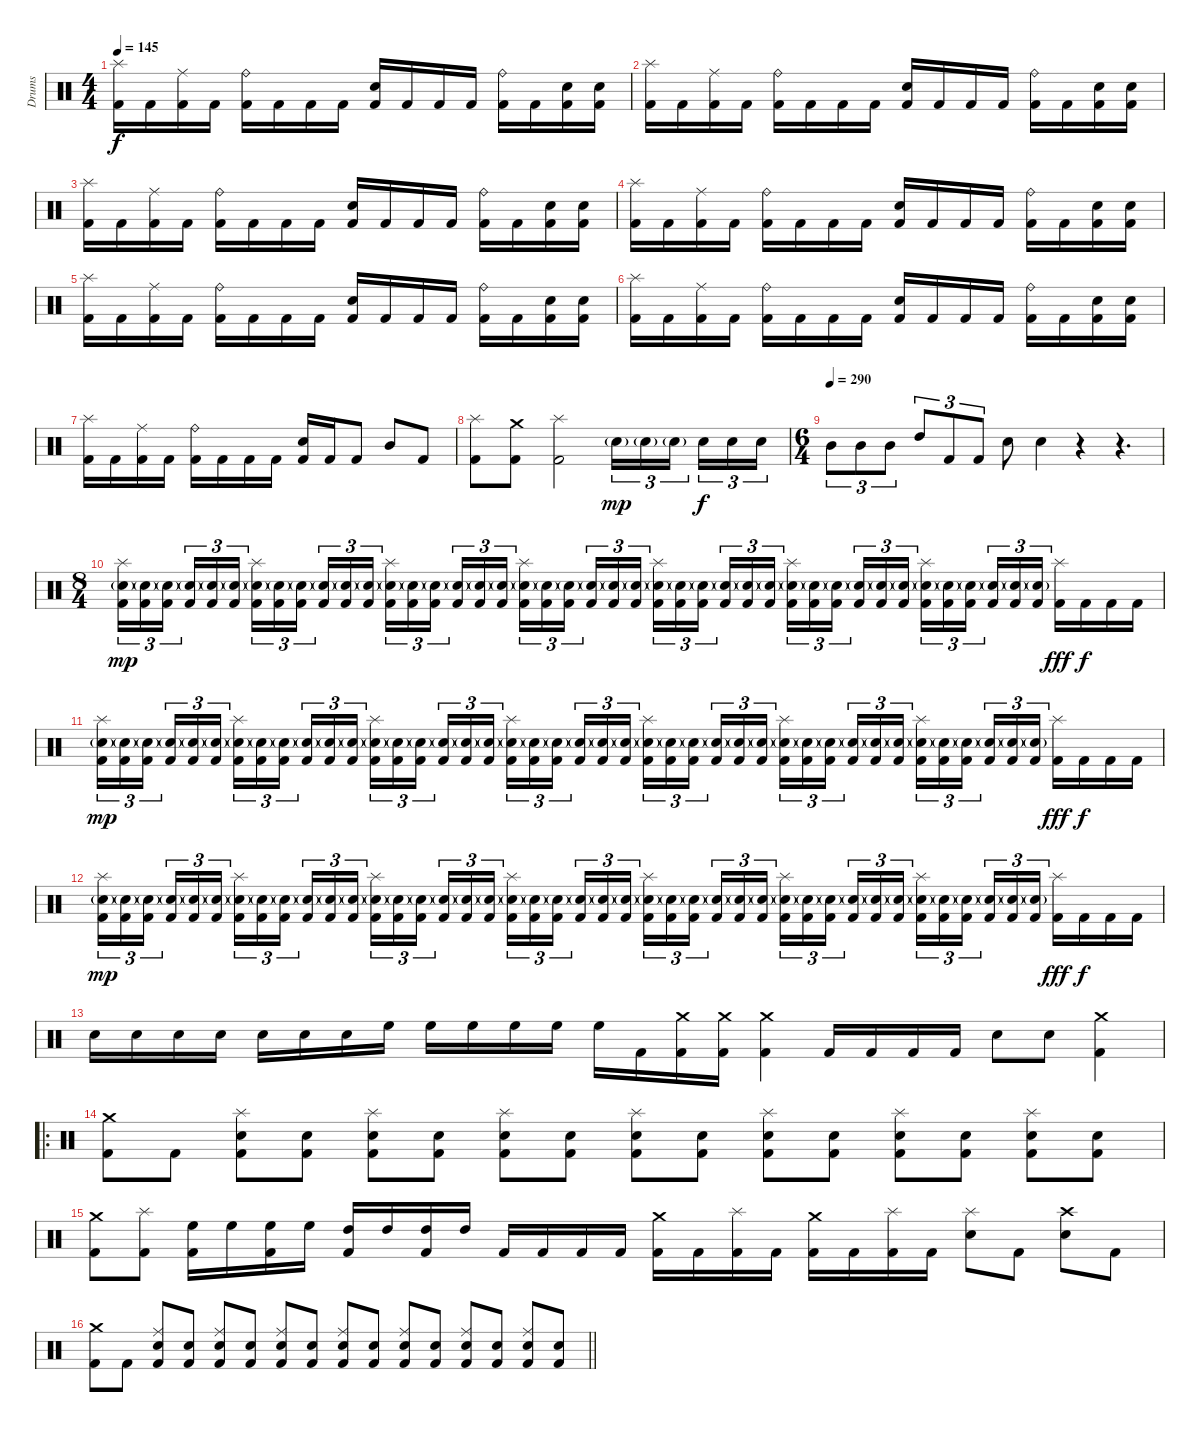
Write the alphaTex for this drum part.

\track ("Drums" "Drums") {instrument percussion}
\staff {score}
\articulation defaults
\ts (4 4)
\tempo 145
\clef neutral
\ks c
("Splash (hit)" "Kick (hit) 2").16{dy f} "Kick (hit) 2".16 ("Ride (middle)" "Kick (hit) 2").16 "Kick (hit) 2".16 ("Ride (bell)" "Kick (hit) 2").16 "Kick (hit) 2".16 "Kick (hit) 2".16 "Kick (hit) 2".16 ("Snare (hit) 2" "Kick (hit) 2").16 "Kick (hit) 2".16 "Kick (hit) 2".16 "Kick (hit) 2".16 ("Ride (bell)" "Kick (hit) 2").16 "Kick (hit) 2".16 ("Snare (hit) 2" "Kick (hit) 2").16 ("Snare (hit) 2" "Kick (hit) 2").16 |
("Splash (hit)" "Kick (hit) 2").16 "Kick (hit) 2".16 ("Ride (middle)" "Kick (hit) 2").16 "Kick (hit) 2".16 ("Ride (bell)" "Kick (hit) 2").16 "Kick (hit) 2".16 "Kick (hit) 2".16 "Kick (hit) 2".16 ("Snare (hit) 2" "Kick (hit) 2").16 "Kick (hit) 2".16 "Kick (hit) 2".16 "Kick (hit) 2".16 ("Ride (bell)" "Kick (hit) 2").16 "Kick (hit) 2".16 ("Snare (hit) 2" "Kick (hit) 2").16 ("Snare (hit) 2" "Kick (hit) 2").16 |
("Splash (hit)" "Kick (hit) 2").16 "Kick (hit) 2".16 ("Ride (middle)" "Kick (hit) 2").16 "Kick (hit) 2".16 ("Ride (bell)" "Kick (hit) 2").16 "Kick (hit) 2".16 "Kick (hit) 2".16 "Kick (hit) 2".16 ("Snare (hit) 2" "Kick (hit) 2").16 "Kick (hit) 2".16 "Kick (hit) 2".16 "Kick (hit) 2".16 ("Ride (bell)" "Kick (hit) 2").16 "Kick (hit) 2".16 ("Snare (hit) 2" "Kick (hit) 2").16 ("Snare (hit) 2" "Kick (hit) 2").16 |
("Splash (hit)" "Kick (hit) 2").16 "Kick (hit) 2".16 ("Ride (middle)" "Kick (hit) 2").16 "Kick (hit) 2".16 ("Ride (bell)" "Kick (hit) 2").16 "Kick (hit) 2".16 "Kick (hit) 2".16 "Kick (hit) 2".16 ("Snare (hit) 2" "Kick (hit) 2").16 "Kick (hit) 2".16 "Kick (hit) 2".16 "Kick (hit) 2".16 ("Ride (bell)" "Kick (hit) 2").16 "Kick (hit) 2".16 ("Snare (hit) 2" "Kick (hit) 2").16 ("Snare (hit) 2" "Kick (hit) 2").16 |
("Splash (hit)" "Kick (hit) 2").16 "Kick (hit) 2".16 ("Ride (middle)" "Kick (hit) 2").16 "Kick (hit) 2".16 ("Ride (bell)" "Kick (hit) 2").16 "Kick (hit) 2".16 "Kick (hit) 2".16 "Kick (hit) 2".16 ("Snare (hit) 2" "Kick (hit) 2").16 "Kick (hit) 2".16 "Kick (hit) 2".16 "Kick (hit) 2".16 ("Ride (bell)" "Kick (hit) 2").16 "Kick (hit) 2".16 ("Snare (hit) 2" "Kick (hit) 2").16 ("Snare (hit) 2" "Kick (hit) 2").16 |
("Splash (hit)" "Kick (hit) 2").16 "Kick (hit) 2".16 ("Ride (middle)" "Kick (hit) 2").16 "Kick (hit) 2".16 ("Ride (bell)" "Kick (hit) 2").16 "Kick (hit) 2".16 "Kick (hit) 2".16 "Kick (hit) 2".16 ("Snare (hit) 2" "Kick (hit) 2").16 "Kick (hit) 2".16 "Kick (hit) 2".16 "Kick (hit) 2".16 ("Ride (bell)" "Kick (hit) 2").16 "Kick (hit) 2".16 ("Snare (hit) 2" "Kick (hit) 2").16 ("Snare (hit) 2" "Kick (hit) 2").16 |
("Splash (hit)" "Kick (hit) 2").16 "Kick (hit) 2".16 ("Ride (middle)" "Kick (hit) 2").16 "Kick (hit) 2".16 ("Ride (bell)" "Kick (hit) 2").16 "Kick (hit) 2".16 "Kick (hit) 2".16 "Kick (hit) 2".16 ("Snare (hit) 2" "Kick (hit) 2").16 "Kick (hit) 2".16 "Kick (hit) 2".8 "Mid Tom (hit)".8 "Kick (hit) 2".8 |
("Splash (hit)" "Kick (hit) 2").8 ("Crash medium (hit)" "Kick (hit) 2").8 ("Splash (hit)" "Kick (hit) 2").2 "Snare (hit) 2"{g}.16{tu (3 2) dy mp} "Snare (hit) 2"{g}.16{tu (3 2)} "Snare (hit) 2"{g}.16{tu (3 2) beam splitsecondary} "Snare (hit) 2".16{tu (3 2) dy f} "Snare (hit) 2".16{tu (3 2)} "Snare (hit) 2".16{tu (3 2)} |
\ts (6 4)
\tempo (290)
"Mid Tom (hit)".8{tu (3 2)} "Mid Tom (hit)".8{tu (3 2)} "Mid Tom (hit)".8{tu (3 2)} "High Tom (hit)".8{tu (3 2)} "Kick (hit) 2".8{tu (3 2)} "Kick (hit) 2".8{tu (3 2)} "Snare (hit) 2".8 "Snare (hit) 2".4 r.4 r.4{d} |
\ts (8 4)
("Splash (hit)" "Snare (hit) 2"{g} "Kick (hit) 2").16{tu (3 2) dy mp} ("Snare (hit) 2"{g} "Kick (hit) 2").16{tu (3 2)} ("Snare (hit) 2"{g} "Kick (hit) 2").16{tu (3 2) beam splitsecondary} ("Snare (hit) 2"{g} "Kick (hit) 2").16{tu (3 2)} ("Snare (hit) 2"{g} "Kick (hit) 2").16{tu (3 2)} ("Snare (hit) 2"{g} "Kick (hit) 2").16{tu (3 2)} ("Splash (hit)" "Snare (hit) 2"{g} "Kick (hit) 2").16{tu (3 2)} ("Snare (hit) 2"{g} "Kick (hit) 2").16{tu (3 2)} ("Snare (hit) 2"{g} "Kick (hit) 2").16{tu (3 2) beam splitsecondary} ("Snare (hit) 2"{g} "Kick (hit) 2").16{tu (3 2)} ("Snare (hit) 2"{g} "Kick (hit) 2").16{tu (3 2)} ("Snare (hit) 2"{g} "Kick (hit) 2").16{tu (3 2)} ("Splash (hit)" "Snare (hit) 2"{g} "Kick (hit) 2").16{tu (3 2)} ("Snare (hit) 2"{g} "Kick (hit) 2").16{tu (3 2)} ("Snare (hit) 2"{g} "Kick (hit) 2").16{tu (3 2) beam splitsecondary} ("Snare (hit) 2"{g} "Kick (hit) 2").16{tu (3 2)} ("Snare (hit) 2"{g} "Kick (hit) 2").16{tu (3 2)} ("Snare (hit) 2"{g} "Kick (hit) 2").16{tu (3 2)} ("Splash (hit)" "Snare (hit) 2"{g} "Kick (hit) 2").16{tu (3 2)} ("Snare (hit) 2"{g} "Kick (hit) 2").16{tu (3 2)} ("Snare (hit) 2"{g} "Kick (hit) 2").16{tu (3 2) beam splitsecondary} ("Snare (hit) 2"{g} "Kick (hit) 2").16{tu (3 2)} ("Snare (hit) 2"{g} "Kick (hit) 2").16{tu (3 2)} ("Snare (hit) 2"{g} "Kick (hit) 2").16{tu (3 2)} ("Splash (hit)" "Snare (hit) 2"{g} "Kick (hit) 2").16{tu (3 2)} ("Snare (hit) 2"{g} "Kick (hit) 2").16{tu (3 2)} ("Snare (hit) 2"{g} "Kick (hit) 2").16{tu (3 2) beam splitsecondary} ("Snare (hit) 2"{g} "Kick (hit) 2").16{tu (3 2)} ("Snare (hit) 2"{g} "Kick (hit) 2").16{tu (3 2)} ("Snare (hit) 2"{g} "Kick (hit) 2").16{tu (3 2)} ("Splash (hit)" "Snare (hit) 2"{g} "Kick (hit) 2").16{tu (3 2)} ("Snare (hit) 2"{g} "Kick (hit) 2").16{tu (3 2)} ("Snare (hit) 2"{g} "Kick (hit) 2").16{tu (3 2) beam splitsecondary} ("Snare (hit) 2"{g} "Kick (hit) 2").16{tu (3 2)} ("Snare (hit) 2"{g} "Kick (hit) 2").16{tu (3 2)} ("Snare (hit) 2"{g} "Kick (hit) 2").16{tu (3 2)} ("Splash (hit)" "Snare (hit) 2"{g} "Kick (hit) 2").16{tu (3 2)} ("Snare (hit) 2"{g} "Kick (hit) 2").16{tu (3 2)} ("Snare (hit) 2"{g} "Kick (hit) 2").16{tu (3 2) beam splitsecondary} ("Snare (hit) 2"{g} "Kick (hit) 2").16{tu (3 2)} ("Snare (hit) 2"{g} "Kick (hit) 2").16{tu (3 2)} ("Snare (hit) 2"{g} "Kick (hit) 2").16{tu (3 2)} ("Splash (hit)" "Kick (hit) 2").16{dy fff} "Kick (hit) 2".16{dy f} "Kick (hit) 2".16 "Kick (hit) 2".16 |
("Splash (hit)" "Snare (hit) 2"{g} "Kick (hit) 2").16{tu (3 2) dy mp} ("Snare (hit) 2"{g} "Kick (hit) 2").16{tu (3 2)} ("Snare (hit) 2"{g} "Kick (hit) 2").16{tu (3 2) beam splitsecondary} ("Snare (hit) 2"{g} "Kick (hit) 2").16{tu (3 2)} ("Snare (hit) 2"{g} "Kick (hit) 2").16{tu (3 2)} ("Snare (hit) 2"{g} "Kick (hit) 2").16{tu (3 2)} ("Splash (hit)" "Snare (hit) 2"{g} "Kick (hit) 2").16{tu (3 2)} ("Snare (hit) 2"{g} "Kick (hit) 2").16{tu (3 2)} ("Snare (hit) 2"{g} "Kick (hit) 2").16{tu (3 2) beam splitsecondary} ("Snare (hit) 2"{g} "Kick (hit) 2").16{tu (3 2)} ("Snare (hit) 2"{g} "Kick (hit) 2").16{tu (3 2)} ("Snare (hit) 2"{g} "Kick (hit) 2").16{tu (3 2)} ("Splash (hit)" "Snare (hit) 2"{g} "Kick (hit) 2").16{tu (3 2)} ("Snare (hit) 2"{g} "Kick (hit) 2").16{tu (3 2)} ("Snare (hit) 2"{g} "Kick (hit) 2").16{tu (3 2) beam splitsecondary} ("Snare (hit) 2"{g} "Kick (hit) 2").16{tu (3 2)} ("Snare (hit) 2"{g} "Kick (hit) 2").16{tu (3 2)} ("Snare (hit) 2"{g} "Kick (hit) 2").16{tu (3 2)} ("Splash (hit)" "Snare (hit) 2"{g} "Kick (hit) 2").16{tu (3 2)} ("Snare (hit) 2"{g} "Kick (hit) 2").16{tu (3 2)} ("Snare (hit) 2"{g} "Kick (hit) 2").16{tu (3 2) beam splitsecondary} ("Snare (hit) 2"{g} "Kick (hit) 2").16{tu (3 2)} ("Snare (hit) 2"{g} "Kick (hit) 2").16{tu (3 2)} ("Snare (hit) 2"{g} "Kick (hit) 2").16{tu (3 2)} ("Splash (hit)" "Snare (hit) 2"{g} "Kick (hit) 2").16{tu (3 2)} ("Snare (hit) 2"{g} "Kick (hit) 2").16{tu (3 2)} ("Snare (hit) 2"{g} "Kick (hit) 2").16{tu (3 2) beam splitsecondary} ("Snare (hit) 2"{g} "Kick (hit) 2").16{tu (3 2)} ("Snare (hit) 2"{g} "Kick (hit) 2").16{tu (3 2)} ("Snare (hit) 2"{g} "Kick (hit) 2").16{tu (3 2)} ("Splash (hit)" "Snare (hit) 2"{g} "Kick (hit) 2").16{tu (3 2)} ("Snare (hit) 2"{g} "Kick (hit) 2").16{tu (3 2)} ("Snare (hit) 2"{g} "Kick (hit) 2").16{tu (3 2) beam splitsecondary} ("Snare (hit) 2"{g} "Kick (hit) 2").16{tu (3 2)} ("Snare (hit) 2"{g} "Kick (hit) 2").16{tu (3 2)} ("Snare (hit) 2"{g} "Kick (hit) 2").16{tu (3 2)} ("Splash (hit)" "Snare (hit) 2"{g} "Kick (hit) 2").16{tu (3 2)} ("Snare (hit) 2"{g} "Kick (hit) 2").16{tu (3 2)} ("Snare (hit) 2"{g} "Kick (hit) 2").16{tu (3 2) beam splitsecondary} ("Snare (hit) 2"{g} "Kick (hit) 2").16{tu (3 2)} ("Snare (hit) 2"{g} "Kick (hit) 2").16{tu (3 2)} ("Snare (hit) 2"{g} "Kick (hit) 2").16{tu (3 2)} ("Splash (hit)" "Kick (hit) 2").16{dy fff} "Kick (hit) 2".16{dy f} "Kick (hit) 2".16 "Kick (hit) 2".16 |
("Splash (hit)" "Snare (hit) 2"{g} "Kick (hit) 2").16{tu (3 2) dy mp} ("Snare (hit) 2"{g} "Kick (hit) 2").16{tu (3 2)} ("Snare (hit) 2"{g} "Kick (hit) 2").16{tu (3 2) beam splitsecondary} ("Snare (hit) 2"{g} "Kick (hit) 2").16{tu (3 2)} ("Snare (hit) 2"{g} "Kick (hit) 2").16{tu (3 2)} ("Snare (hit) 2"{g} "Kick (hit) 2").16{tu (3 2)} ("Splash (hit)" "Snare (hit) 2"{g} "Kick (hit) 2").16{tu (3 2)} ("Snare (hit) 2"{g} "Kick (hit) 2").16{tu (3 2)} ("Snare (hit) 2"{g} "Kick (hit) 2").16{tu (3 2) beam splitsecondary} ("Snare (hit) 2"{g} "Kick (hit) 2").16{tu (3 2)} ("Snare (hit) 2"{g} "Kick (hit) 2").16{tu (3 2)} ("Snare (hit) 2"{g} "Kick (hit) 2").16{tu (3 2)} ("Splash (hit)" "Snare (hit) 2"{g} "Kick (hit) 2").16{tu (3 2)} ("Snare (hit) 2"{g} "Kick (hit) 2").16{tu (3 2)} ("Snare (hit) 2"{g} "Kick (hit) 2").16{tu (3 2) beam splitsecondary} ("Snare (hit) 2"{g} "Kick (hit) 2").16{tu (3 2)} ("Snare (hit) 2"{g} "Kick (hit) 2").16{tu (3 2)} ("Snare (hit) 2"{g} "Kick (hit) 2").16{tu (3 2)} ("Splash (hit)" "Snare (hit) 2"{g} "Kick (hit) 2").16{tu (3 2)} ("Snare (hit) 2"{g} "Kick (hit) 2").16{tu (3 2)} ("Snare (hit) 2"{g} "Kick (hit) 2").16{tu (3 2) beam splitsecondary} ("Snare (hit) 2"{g} "Kick (hit) 2").16{tu (3 2)} ("Snare (hit) 2"{g} "Kick (hit) 2").16{tu (3 2)} ("Snare (hit) 2"{g} "Kick (hit) 2").16{tu (3 2)} ("Splash (hit)" "Snare (hit) 2"{g} "Kick (hit) 2").16{tu (3 2)} ("Snare (hit) 2"{g} "Kick (hit) 2").16{tu (3 2)} ("Snare (hit) 2"{g} "Kick (hit) 2").16{tu (3 2) beam splitsecondary} ("Snare (hit) 2"{g} "Kick (hit) 2").16{tu (3 2)} ("Snare (hit) 2"{g} "Kick (hit) 2").16{tu (3 2)} ("Snare (hit) 2"{g} "Kick (hit) 2").16{tu (3 2)} ("Splash (hit)" "Snare (hit) 2"{g} "Kick (hit) 2").16{tu (3 2)} ("Snare (hit) 2"{g} "Kick (hit) 2").16{tu (3 2)} ("Snare (hit) 2"{g} "Kick (hit) 2").16{tu (3 2) beam splitsecondary} ("Snare (hit) 2"{g} "Kick (hit) 2").16{tu (3 2)} ("Snare (hit) 2"{g} "Kick (hit) 2").16{tu (3 2)} ("Snare (hit) 2"{g} "Kick (hit) 2").16{tu (3 2)} ("Splash (hit)" "Snare (hit) 2"{g} "Kick (hit) 2").16{tu (3 2)} ("Snare (hit) 2"{g} "Kick (hit) 2").16{tu (3 2)} ("Snare (hit) 2"{g} "Kick (hit) 2").16{tu (3 2) beam splitsecondary} ("Snare (hit) 2"{g} "Kick (hit) 2").16{tu (3 2)} ("Snare (hit) 2"{g} "Kick (hit) 2").16{tu (3 2)} ("Snare (hit) 2"{g} "Kick (hit) 2").16{tu (3 2)} ("Splash (hit)" "Kick (hit) 2").16{dy fff} "Kick (hit) 2".16{dy f} "Kick (hit) 2".16 "Kick (hit) 2".16 |
"Snare (hit) 2".16 "Snare (hit) 2".16 "Snare (hit) 2".16 "Snare (hit) 2".16 "Snare (hit) 2".16 "Snare (hit) 2".16 "Snare (hit) 2".16 "High Floor Tom (hit)".16 "High Floor Tom (hit)".16 "High Floor Tom (hit)".16 "High Floor Tom (hit)".16 "High Floor Tom (hit)".16 "High Floor Tom (hit)".16 "Kick (hit) 2".16 ("Crash medium (hit)" "Kick (hit) 2").16 ("Crash medium (hit)" "Kick (hit) 2").16 ("Crash medium (hit)" "Kick (hit) 2").4 "Kick (hit) 2".16 "Kick (hit) 2".16 "Kick (hit) 2".16 "Kick (hit) 2".16 "Snare (hit) 2".8 "Snare (hit) 2".8 ("Crash medium (hit)" "Kick (hit) 2").4 |
\ro
("Crash medium (hit)" "Kick (hit) 2").8 "Kick (hit) 2".8 ("Splash (hit)" "Snare (hit) 2" "Kick (hit) 2").8 ("Snare (hit) 2" "Kick (hit) 2").8 ("Splash (hit)" "Snare (hit) 2" "Kick (hit) 2").8 ("Snare (hit) 2" "Kick (hit) 2").8 ("Splash (hit)" "Snare (hit) 2" "Kick (hit) 2").8 ("Snare (hit) 2" "Kick (hit) 2").8 ("Splash (hit)" "Snare (hit) 2" "Kick (hit) 2").8 ("Snare (hit) 2" "Kick (hit) 2").8 ("Splash (hit)" "Snare (hit) 2" "Kick (hit) 2").8 ("Snare (hit) 2" "Kick (hit) 2").8 ("Splash (hit)" "Snare (hit) 2" "Kick (hit) 2").8 ("Snare (hit) 2" "Kick (hit) 2").8 ("Splash (hit)" "Snare (hit) 2" "Kick (hit) 2").8 ("Snare (hit) 2" "Kick (hit) 2").8 |
("Crash medium (hit)" "Kick (hit) 2").8 ("Splash (hit)" "Kick (hit) 2").8 ("High Floor Tom (hit)" "Kick (hit) 2").16 "High Floor Tom (hit)".16 ("High Floor Tom (hit)" "Kick (hit) 2").16 "High Floor Tom (hit)".16 ("High Tom (hit)" "Kick (hit) 2").16 "High Tom (hit)".16 ("High Tom (hit)" "Kick (hit) 2").16 "High Tom (hit)".16 "Kick (hit) 2".16 "Kick (hit) 2".16 "Kick (hit) 2".16 "Kick (hit) 2".16 ("Crash medium (hit)" "Kick (hit) 2").16 "Kick (hit) 2".16 ("Splash (hit)" "Kick (hit) 2").16 "Kick (hit) 2".16 ("Crash medium (hit)" "Kick (hit) 2").16 "Kick (hit) 2".16 ("Splash (hit)" "Kick (hit) 2").16 "Kick (hit) 2".16 ("Splash (hit)" "Snare (hit) 2").8 "Kick (hit) 2".8 ("Crash high (hit)" "Snare (hit) 2").8 "Kick (hit) 2".8 |
\barLineRight lightlight
("Crash medium (hit)" "Kick (hit) 2").8 "Kick (hit) 2".8 ("Ride (middle)" "Snare (hit) 2" "Kick (hit) 2").8 ("Snare (hit) 2" "Kick (hit) 2").8 ("Ride (middle)" "Snare (hit) 2" "Kick (hit) 2").8 ("Snare (hit) 2" "Kick (hit) 2").8 ("Ride (middle)" "Snare (hit) 2" "Kick (hit) 2").8 ("Snare (hit) 2" "Kick (hit) 2").8 ("Ride (middle)" "Snare (hit) 2" "Kick (hit) 2").8 ("Snare (hit) 2" "Kick (hit) 2").8 ("Ride (middle)" "Snare (hit) 2" "Kick (hit) 2").8 ("Snare (hit) 2" "Kick (hit) 2").8 ("Ride (middle)" "Snare (hit) 2" "Kick (hit) 2").8 ("Snare (hit) 2" "Kick (hit) 2").8 ("Ride (middle)" "Snare (hit) 2" "Kick (hit) 2").8 ("Snare (hit) 2" "Kick (hit) 2").8
